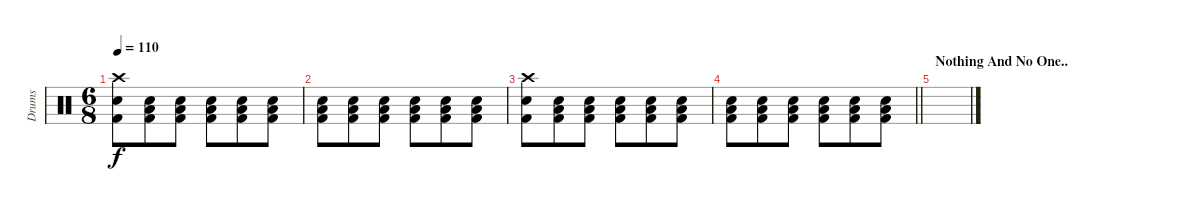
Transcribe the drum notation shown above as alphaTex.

\track ("Drums" "Drums") {instrument percussion}
\staff {score}
\articulation defaults
\ts (6 8)
\tempo 110
\clef neutral
\ks c
("Crash high (hit)" "Electric Snare (hit)" "Kick (hit) 2").8{dy f} ("Electric Snare (hit)" "Low Floor Tom (hit)" "Kick (hit) 2").8 ("Electric Snare (hit)" "Low Floor Tom (hit)" "Kick (hit) 2").8 ("Electric Snare (hit)" "Low Floor Tom (hit)" "Kick (hit) 2").8 ("Electric Snare (hit)" "Low Floor Tom (hit)" "Kick (hit) 2").8 ("Electric Snare (hit)" "Low Floor Tom (hit)" "Kick (hit) 2").8 |
("Electric Snare (hit)" "Low Floor Tom (hit)" "Kick (hit) 2").8 ("Electric Snare (hit)" "Low Floor Tom (hit)" "Kick (hit) 2").8 ("Electric Snare (hit)" "Low Floor Tom (hit)" "Kick (hit) 2").8 ("Electric Snare (hit)" "Low Floor Tom (hit)" "Kick (hit) 2").8 ("Electric Snare (hit)" "Low Floor Tom (hit)" "Kick (hit) 2").8 ("Electric Snare (hit)" "Low Floor Tom (hit)" "Kick (hit) 2").8 |
("Crash high (hit)" "Electric Snare (hit)" "Kick (hit) 2").8 ("Electric Snare (hit)" "Low Floor Tom (hit)" "Kick (hit) 2").8 ("Electric Snare (hit)" "Low Floor Tom (hit)" "Kick (hit) 2").8 ("Electric Snare (hit)" "Low Floor Tom (hit)" "Kick (hit) 2").8 ("Electric Snare (hit)" "Low Floor Tom (hit)" "Kick (hit) 2").8 ("Electric Snare (hit)" "Low Floor Tom (hit)" "Kick (hit) 2").8 |
\barLineRight lightlight
("Electric Snare (hit)" "Low Floor Tom (hit)" "Kick (hit) 2").8 ("Electric Snare (hit)" "Low Floor Tom (hit)" "Kick (hit) 2").8 ("Electric Snare (hit)" "Low Floor Tom (hit)" "Kick (hit) 2").8 ("Electric Snare (hit)" "Low Floor Tom (hit)" "Kick (hit) 2").8 ("Electric Snare (hit)" "Low Floor Tom (hit)" "Kick (hit) 2").8 ("Electric Snare (hit)" "Low Floor Tom (hit)" "Kick (hit) 2").8 |
\section ("" "Nothing And No One..")
